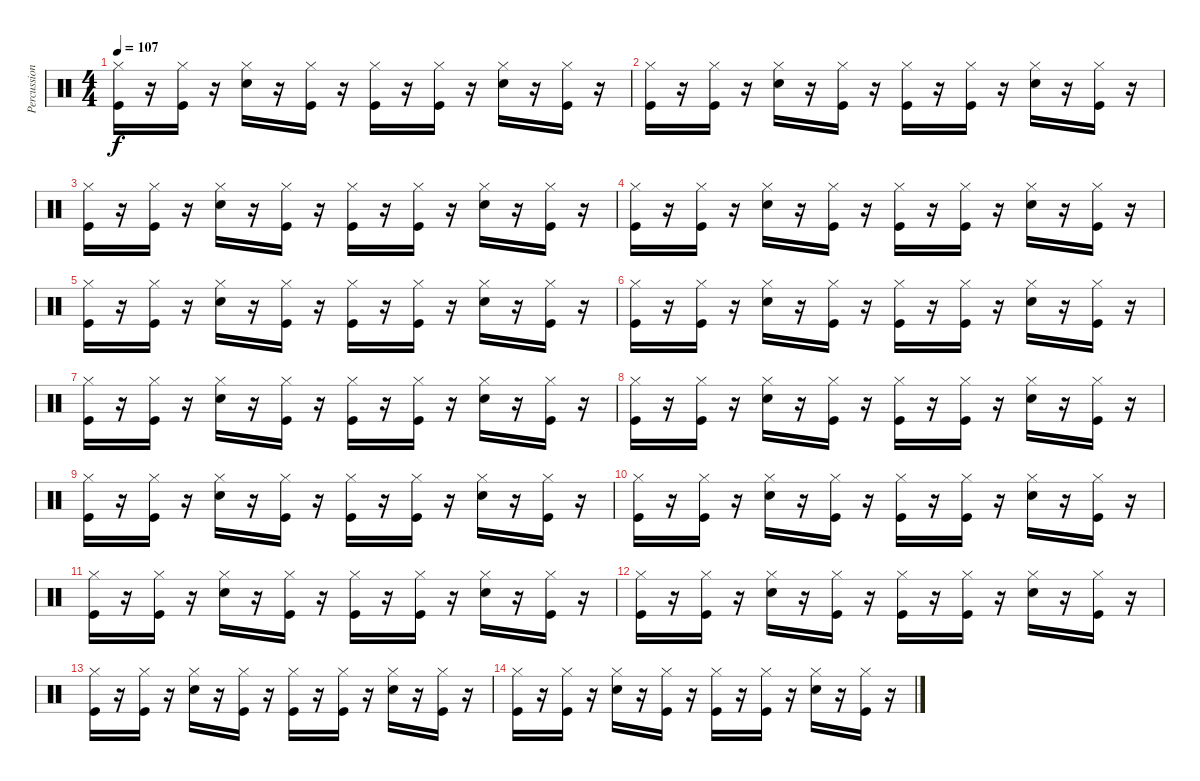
\track ("Percussions" "Percussion") {instrument percussion}
\staff {score}
\articulation defaults
\ts (4 4)
\tempo 107
\clef neutral
\ks c
("Hi-Hat (closed)" "Kick (hit)").16{dy f} r.16 ("Hi-Hat (closed)" "Kick (hit)").16 r.16 ("Hi-Hat (closed)" "Electric Snare (hit)").16 r.16 ("Hi-Hat (closed)" "Kick (hit)").16 r.16 ("Hi-Hat (closed)" "Kick (hit)").16 r.16 ("Hi-Hat (closed)" "Kick (hit)").16 r.16 ("Hi-Hat (closed)" "Electric Snare (hit)").16 r.16 ("Hi-Hat (closed)" "Kick (hit)").16 r.16 |
("Hi-Hat (closed)" "Kick (hit)").16 r.16 ("Hi-Hat (closed)" "Kick (hit)").16 r.16 ("Hi-Hat (closed)" "Electric Snare (hit)").16 r.16 ("Hi-Hat (closed)" "Kick (hit)").16 r.16 ("Hi-Hat (closed)" "Kick (hit)").16 r.16 ("Hi-Hat (closed)" "Kick (hit)").16 r.16 ("Hi-Hat (closed)" "Electric Snare (hit)").16 r.16 ("Hi-Hat (closed)" "Kick (hit)").16 r.16 |
("Hi-Hat (closed)" "Kick (hit)").16 r.16 ("Hi-Hat (closed)" "Kick (hit)").16 r.16 ("Hi-Hat (closed)" "Electric Snare (hit)").16 r.16 ("Hi-Hat (closed)" "Kick (hit)").16 r.16 ("Hi-Hat (closed)" "Kick (hit)").16 r.16 ("Hi-Hat (closed)" "Kick (hit)").16 r.16 ("Hi-Hat (closed)" "Electric Snare (hit)").16 r.16 ("Hi-Hat (closed)" "Kick (hit)").16 r.16 |
("Hi-Hat (closed)" "Kick (hit)").16 r.16 ("Hi-Hat (closed)" "Kick (hit)").16 r.16 ("Hi-Hat (closed)" "Electric Snare (hit)").16 r.16 ("Hi-Hat (closed)" "Kick (hit)").16 r.16 ("Hi-Hat (closed)" "Kick (hit)").16 r.16 ("Hi-Hat (closed)" "Kick (hit)").16 r.16 ("Hi-Hat (closed)" "Electric Snare (hit)").16 r.16 ("Hi-Hat (closed)" "Kick (hit)").16 r.16 |
("Hi-Hat (closed)" "Kick (hit)").16 r.16 ("Hi-Hat (closed)" "Kick (hit)").16 r.16 ("Hi-Hat (closed)" "Electric Snare (hit)").16 r.16 ("Hi-Hat (closed)" "Kick (hit)").16 r.16 ("Hi-Hat (closed)" "Kick (hit)").16 r.16 ("Hi-Hat (closed)" "Kick (hit)").16 r.16 ("Hi-Hat (closed)" "Electric Snare (hit)").16 r.16 ("Hi-Hat (closed)" "Kick (hit)").16 r.16 |
("Hi-Hat (closed)" "Kick (hit)").16 r.16 ("Hi-Hat (closed)" "Kick (hit)").16 r.16 ("Hi-Hat (closed)" "Electric Snare (hit)").16 r.16 ("Hi-Hat (closed)" "Kick (hit)").16 r.16 ("Hi-Hat (closed)" "Kick (hit)").16 r.16 ("Hi-Hat (closed)" "Kick (hit)").16 r.16 ("Hi-Hat (closed)" "Electric Snare (hit)").16 r.16 ("Hi-Hat (closed)" "Kick (hit)").16 r.16 |
("Hi-Hat (closed)" "Kick (hit)").16 r.16 ("Hi-Hat (closed)" "Kick (hit)").16 r.16 ("Hi-Hat (closed)" "Electric Snare (hit)").16 r.16 ("Hi-Hat (closed)" "Kick (hit)").16 r.16 ("Hi-Hat (closed)" "Kick (hit)").16 r.16 ("Hi-Hat (closed)" "Kick (hit)").16 r.16 ("Hi-Hat (closed)" "Electric Snare (hit)").16 r.16 ("Hi-Hat (closed)" "Kick (hit)").16 r.16 |
("Hi-Hat (closed)" "Kick (hit)").16 r.16 ("Hi-Hat (closed)" "Kick (hit)").16 r.16 ("Hi-Hat (closed)" "Electric Snare (hit)").16 r.16 ("Hi-Hat (closed)" "Kick (hit)").16 r.16 ("Hi-Hat (closed)" "Kick (hit)").16 r.16 ("Hi-Hat (closed)" "Kick (hit)").16 r.16 ("Hi-Hat (closed)" "Electric Snare (hit)").16 r.16 ("Hi-Hat (closed)" "Kick (hit)").16 r.16 |
("Hi-Hat (closed)" "Kick (hit)").16 r.16 ("Hi-Hat (closed)" "Kick (hit)").16 r.16 ("Hi-Hat (closed)" "Electric Snare (hit)").16 r.16 ("Hi-Hat (closed)" "Kick (hit)").16 r.16 ("Hi-Hat (closed)" "Kick (hit)").16 r.16 ("Hi-Hat (closed)" "Kick (hit)").16 r.16 ("Hi-Hat (closed)" "Electric Snare (hit)").16 r.16 ("Hi-Hat (closed)" "Kick (hit)").16 r.16 |
("Hi-Hat (closed)" "Kick (hit)").16 r.16 ("Hi-Hat (closed)" "Kick (hit)").16 r.16 ("Hi-Hat (closed)" "Electric Snare (hit)").16 r.16 ("Hi-Hat (closed)" "Kick (hit)").16 r.16 ("Hi-Hat (closed)" "Kick (hit)").16 r.16 ("Hi-Hat (closed)" "Kick (hit)").16 r.16 ("Hi-Hat (closed)" "Electric Snare (hit)").16 r.16 ("Hi-Hat (closed)" "Kick (hit)").16 r.16 |
("Hi-Hat (closed)" "Kick (hit)").16{volume 0} r.16 ("Hi-Hat (closed)" "Kick (hit)").16 r.16 ("Hi-Hat (closed)" "Electric Snare (hit)").16 r.16 ("Hi-Hat (closed)" "Kick (hit)").16 r.16 ("Hi-Hat (closed)" "Kick (hit)").16 r.16 ("Hi-Hat (closed)" "Kick (hit)").16 r.16 ("Hi-Hat (closed)" "Electric Snare (hit)").16 r.16 ("Hi-Hat (closed)" "Kick (hit)").16 r.16 |
("Hi-Hat (closed)" "Kick (hit)").16 r.16 ("Hi-Hat (closed)" "Kick (hit)").16 r.16 ("Hi-Hat (closed)" "Electric Snare (hit)").16 r.16 ("Hi-Hat (closed)" "Kick (hit)").16 r.16 ("Hi-Hat (closed)" "Kick (hit)").16 r.16 ("Hi-Hat (closed)" "Kick (hit)").16 r.16 ("Hi-Hat (closed)" "Electric Snare (hit)").16 r.16 ("Hi-Hat (closed)" "Kick (hit)").16 r.16 |
("Hi-Hat (closed)" "Kick (hit)").16 r.16 ("Hi-Hat (closed)" "Kick (hit)").16 r.16 ("Hi-Hat (closed)" "Electric Snare (hit)").16 r.16 ("Hi-Hat (closed)" "Kick (hit)").16 r.16 ("Hi-Hat (closed)" "Kick (hit)").16 r.16 ("Hi-Hat (closed)" "Kick (hit)").16 r.16 ("Hi-Hat (closed)" "Electric Snare (hit)").16 r.16 ("Hi-Hat (closed)" "Kick (hit)").16 r.16 |
("Hi-Hat (closed)" "Kick (hit)").16 r.16 ("Hi-Hat (closed)" "Kick (hit)").16 r.16 ("Hi-Hat (closed)" "Electric Snare (hit)").16 r.16 ("Hi-Hat (closed)" "Kick (hit)").16 r.16 ("Hi-Hat (closed)" "Kick (hit)").16 r.16 ("Hi-Hat (closed)" "Kick (hit)").16 r.16 ("Hi-Hat (closed)" "Electric Snare (hit)").16 r.16 ("Hi-Hat (closed)" "Kick (hit)").16 r.16
